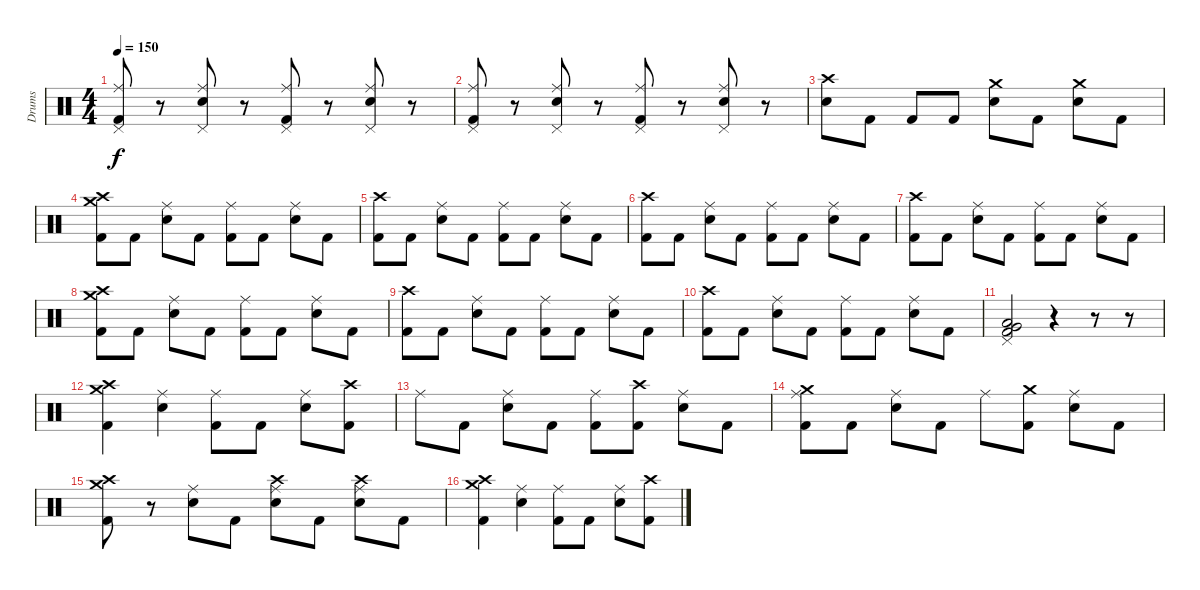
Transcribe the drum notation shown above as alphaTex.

\track ("Drums" "Drums") {instrument percussion}
\staff {score}
\articulation defaults
\ts (4 4)
\tempo 150
\clef neutral
\ks c
("Pedal Hi-Hat (hit)" "Ride (middle)" "Kick (hit) 2").8{dy f} r.8 ("Pedal Hi-Hat (hit)" "Ride (middle)" "Snare (hit) 2").8 r.8 ("Pedal Hi-Hat (hit)" "Ride (middle)" "Kick (hit) 2").8 r.8 ("Pedal Hi-Hat (hit)" "Ride (middle)" "Snare (hit) 2").8 r.8 |
("Pedal Hi-Hat (hit)" "Ride (middle)" "Kick (hit) 2").8 r.8 ("Pedal Hi-Hat (hit)" "Ride (middle)" "Snare (hit) 2").8 r.8 ("Pedal Hi-Hat (hit)" "Ride (middle)" "Kick (hit) 2").8 r.8 ("Pedal Hi-Hat (hit)" "Ride (middle)" "Snare (hit) 2").8 r.8 |
("Crash high (hit)" "Snare (hit) 2").8 "Kick (hit) 2".8 "Kick (hit) 2".8 "Kick (hit) 2".8 ("Crash medium (hit)" "Snare (hit) 2").8 "Kick (hit) 2".8 ("Crash medium (hit)" "Snare (hit) 2").8 "Kick (hit) 2".8 |
("Crash high (hit)" "Crash medium (hit)" "Kick (hit) 2").8 "Kick (hit) 2".8 ("Ride (middle)" "Snare (hit) 2").8 "Kick (hit) 2".8 ("Ride (middle)" "Kick (hit) 2").8 "Kick (hit) 2".8 ("Ride (middle)" "Snare (hit) 2").8 "Kick (hit) 2".8 |
("Crash high (hit)" "Kick (hit) 2").8 "Kick (hit) 2".8 ("Ride (middle)" "Snare (hit) 2").8 "Kick (hit) 2".8 ("Ride (middle)" "Kick (hit) 2").8 "Kick (hit) 2".8 ("Ride (middle)" "Snare (hit) 2").8 "Kick (hit) 2".8 |
("Crash high (hit)" "Kick (hit) 2").8 "Kick (hit) 2".8 ("Ride (middle)" "Snare (hit) 2").8 "Kick (hit) 2".8 ("Ride (middle)" "Kick (hit) 2").8 "Kick (hit) 2".8 ("Ride (middle)" "Snare (hit) 2").8 "Kick (hit) 2".8 |
("Crash high (hit)" "Kick (hit) 2").8 "Kick (hit) 2".8 ("Ride (middle)" "Snare (hit) 2").8 "Kick (hit) 2".8 ("Ride (middle)" "Kick (hit) 2").8 "Kick (hit) 2".8 ("Ride (middle)" "Snare (hit) 2").8 "Kick (hit) 2".8 |
("Crash high (hit)" "Crash medium (hit)" "Kick (hit) 2").8 "Kick (hit) 2".8 ("Ride (middle)" "Snare (hit) 2").8 "Kick (hit) 2".8 ("Ride (middle)" "Kick (hit) 2").8 "Kick (hit) 2".8 ("Ride (middle)" "Snare (hit) 2").8 "Kick (hit) 2".8 |
("Crash high (hit)" "Kick (hit) 2").8 "Kick (hit) 2".8 ("Ride (middle)" "Snare (hit) 2").8 "Kick (hit) 2".8 ("Ride (middle)" "Kick (hit) 2").8 "Kick (hit) 2".8 ("Ride (middle)" "Snare (hit) 2").8 "Kick (hit) 2".8 |
("Crash high (hit)" "Kick (hit) 2").8 "Kick (hit) 2".8 ("Ride (middle)" "Snare (hit) 2").8 "Kick (hit) 2".8 ("Ride (middle)" "Kick (hit) 2").8 "Kick (hit) 2".8 ("Ride (middle)" "Snare (hit) 2").8 "Kick (hit) 2".8 |
("Pedal Hi-Hat (hit)" "Very Low Tom (hit)" "Low Tom (hit)" "Kick (hit) 2").2 r.4 r.8 r.8 |
("Crash medium (hit)" "Crash high (hit)" "Kick (hit) 2").4 ("Ride (middle)" "Snare (hit) 2").4 ("Ride (middle)" "Kick (hit) 2").8 "Kick (hit) 2".8 ("Ride (middle)" "Snare (hit) 2").8 ("Crash high (hit)" "Kick (hit) 2").8 |
"Ride (middle)".8 "Kick (hit) 2".8 ("Ride (middle)" "Snare (hit) 2").8 "Kick (hit) 2".8 ("Ride (middle)" "Kick (hit) 2").8 ("Crash high (hit)" "Kick (hit) 2").8 ("Ride (middle)" "Snare (hit) 2").8 "Kick (hit) 2".8 |
("Crash medium (hit)" "Ride (middle)" "Kick (hit) 2").8 "Kick (hit) 2".8 ("Ride (middle)" "Snare (hit) 2").8 "Kick (hit) 2".8 "Ride (middle)".8 ("Crash medium (hit)" "Kick (hit) 2").8 ("Ride (middle)" "Snare (hit) 2").8 "Kick (hit) 2".8 |
("Crash medium (hit)" "Crash high (hit)" "Kick (hit) 2").8 r.8 ("Ride (middle)" "Snare (hit) 2").8 "Kick (hit) 2".8 ("Ride (middle)" "Crash high (hit)" "Snare (hit) 2").8 "Kick (hit) 2".8 ("Ride (middle)" "Crash high (hit)" "Snare (hit) 2").8 "Kick (hit) 2".8 |
("Crash medium (hit)" "Crash high (hit)" "Kick (hit) 2").4 ("Ride (middle)" "Snare (hit) 2").4 ("Ride (middle)" "Kick (hit) 2").8 "Kick (hit) 2".8 ("Ride (middle)" "Snare (hit) 2").8 ("Crash high (hit)" "Kick (hit) 2").8
